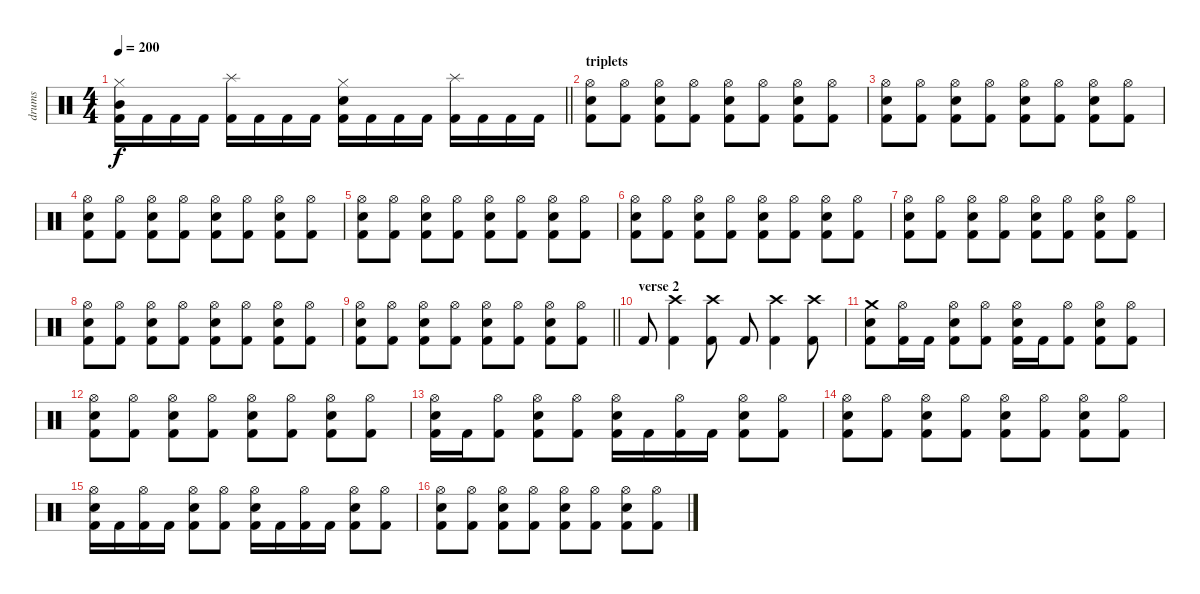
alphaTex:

\track ("drums" "drums") {instrument percussion}
\staff {score}
\articulation defaults
\ts (4 4)
\tempo 200
\clef neutral
\barLineRight lightlight
\ks c
("Hi-Hat (closed)" "Mid Tom (hit)" "Kick (hit) 2").16{dy f} "Kick (hit) 2".16 "Kick (hit) 2".16 "Kick (hit) 2".16 ("Splash (hit)" "Kick (hit) 2").16 "Kick (hit) 2".16 "Kick (hit) 2".16 "Kick (hit) 2".16 ("Hi-Hat (closed)" "Snare (hit) 2" "Kick (hit) 2").16 "Kick (hit) 2".16 "Kick (hit) 2".16 "Kick (hit) 2".16 ("Splash (hit)" "Kick (hit) 2").16 "Kick (hit) 2".16 "Kick (hit) 2".16 "Kick (hit) 2".16 |
\section ("" "triplets")
("Hi-Hat (open)" "Snare (hit) 2" "Kick (hit) 2").8 ("Hi-Hat (open)" "Kick (hit) 2").8 ("Hi-Hat (open)" "Snare (hit) 2" "Kick (hit) 2").8 ("Hi-Hat (open)" "Kick (hit) 2").8 ("Hi-Hat (open)" "Snare (hit) 2" "Kick (hit) 2").8 ("Hi-Hat (open)" "Kick (hit) 2").8 ("Hi-Hat (open)" "Snare (hit) 2" "Kick (hit) 2").8 ("Hi-Hat (open)" "Kick (hit) 2").8 |
("Hi-Hat (open)" "Snare (hit) 2" "Kick (hit) 2").8 ("Hi-Hat (open)" "Kick (hit) 2").8 ("Hi-Hat (open)" "Snare (hit) 2" "Kick (hit) 2").8 ("Hi-Hat (open)" "Kick (hit) 2").8 ("Hi-Hat (open)" "Snare (hit) 2" "Kick (hit) 2").8 ("Hi-Hat (open)" "Kick (hit) 2").8 ("Hi-Hat (open)" "Snare (hit) 2" "Kick (hit) 2").8 ("Hi-Hat (open)" "Kick (hit) 2").8 |
("Hi-Hat (open)" "Snare (hit) 2" "Kick (hit) 2").8 ("Hi-Hat (open)" "Kick (hit) 2").8 ("Hi-Hat (open)" "Snare (hit) 2" "Kick (hit) 2").8 ("Hi-Hat (open)" "Kick (hit) 2").8 ("Hi-Hat (open)" "Snare (hit) 2" "Kick (hit) 2").8 ("Hi-Hat (open)" "Kick (hit) 2").8 ("Hi-Hat (open)" "Snare (hit) 2" "Kick (hit) 2").8 ("Hi-Hat (open)" "Kick (hit) 2").8 |
("Hi-Hat (open)" "Snare (hit) 2" "Kick (hit) 2").8 ("Hi-Hat (open)" "Kick (hit) 2").8 ("Hi-Hat (open)" "Snare (hit) 2" "Kick (hit) 2").8 ("Hi-Hat (open)" "Kick (hit) 2").8 ("Hi-Hat (open)" "Snare (hit) 2" "Kick (hit) 2").8 ("Hi-Hat (open)" "Kick (hit) 2").8 ("Hi-Hat (open)" "Snare (hit) 2" "Kick (hit) 2").8 ("Hi-Hat (open)" "Kick (hit) 2").8 |
("Hi-Hat (open)" "Snare (hit) 2" "Kick (hit) 2").8 ("Hi-Hat (open)" "Kick (hit) 2").8 ("Hi-Hat (open)" "Snare (hit) 2" "Kick (hit) 2").8 ("Hi-Hat (open)" "Kick (hit) 2").8 ("Hi-Hat (open)" "Snare (hit) 2" "Kick (hit) 2").8 ("Hi-Hat (open)" "Kick (hit) 2").8 ("Hi-Hat (open)" "Snare (hit) 2" "Kick (hit) 2").8 ("Hi-Hat (open)" "Kick (hit) 2").8 |
("Hi-Hat (open)" "Snare (hit) 2" "Kick (hit) 2").8 ("Hi-Hat (open)" "Kick (hit) 2").8 ("Hi-Hat (open)" "Snare (hit) 2" "Kick (hit) 2").8 ("Hi-Hat (open)" "Kick (hit) 2").8 ("Hi-Hat (open)" "Snare (hit) 2" "Kick (hit) 2").8 ("Hi-Hat (open)" "Kick (hit) 2").8 ("Hi-Hat (open)" "Snare (hit) 2" "Kick (hit) 2").8 ("Hi-Hat (open)" "Kick (hit) 2").8 |
("Hi-Hat (open)" "Snare (hit) 2" "Kick (hit) 2").8 ("Hi-Hat (open)" "Kick (hit) 2").8 ("Hi-Hat (open)" "Snare (hit) 2" "Kick (hit) 2").8 ("Hi-Hat (open)" "Kick (hit) 2").8 ("Hi-Hat (open)" "Snare (hit) 2" "Kick (hit) 2").8 ("Hi-Hat (open)" "Kick (hit) 2").8 ("Hi-Hat (open)" "Snare (hit) 2" "Kick (hit) 2").8 ("Hi-Hat (open)" "Kick (hit) 2").8 |
\barLineRight lightlight
("Hi-Hat (open)" "Snare (hit) 2" "Kick (hit) 2").8 ("Hi-Hat (open)" "Kick (hit) 2").8 ("Hi-Hat (open)" "Snare (hit) 2" "Kick (hit) 2").8 ("Hi-Hat (open)" "Kick (hit) 2").8 ("Hi-Hat (open)" "Snare (hit) 2" "Kick (hit) 2").8 ("Hi-Hat (open)" "Kick (hit) 2").8 ("Hi-Hat (open)" "Snare (hit) 2" "Kick (hit) 2").8 ("Hi-Hat (open)" "Kick (hit) 2").8 |
\section ("" "verse 2")
"Kick (hit) 2".8 ("Crash high (hit)" "Kick (hit) 2").4 ("Crash high (hit)" "Kick (hit) 2").8 "Kick (hit) 2".8 ("Crash high (hit)" "Kick (hit) 2").4 ("Crash high (hit)" "Kick (hit) 2").8 |
("Crash medium (hit)" "Snare (hit) 2" "Kick (hit) 2").8 ("Hi-Hat (open)" "Kick (hit) 2").16 "Kick (hit) 2".16 ("Hi-Hat (open)" "Snare (hit) 2" "Kick (hit) 2").8 ("Hi-Hat (open)" "Kick (hit) 2").8 ("Hi-Hat (open)" "Snare (hit) 2" "Kick (hit) 2").16 "Kick (hit) 2".16 ("Hi-Hat (open)" "Kick (hit) 2").8 ("Hi-Hat (open)" "Snare (hit) 2" "Kick (hit) 2").8 ("Hi-Hat (open)" "Kick (hit) 2").8 |
("Hi-Hat (open)" "Snare (hit) 2" "Kick (hit) 2").8 ("Hi-Hat (open)" "Kick (hit) 2").8 ("Hi-Hat (open)" "Snare (hit) 2" "Kick (hit) 2").8 ("Hi-Hat (open)" "Kick (hit) 2").8 ("Hi-Hat (open)" "Snare (hit) 2" "Kick (hit) 2").8 ("Hi-Hat (open)" "Kick (hit) 2").8 ("Hi-Hat (open)" "Snare (hit) 2" "Kick (hit) 2").8 ("Hi-Hat (open)" "Kick (hit) 2").8 |
("Hi-Hat (open)" "Snare (hit) 2" "Kick (hit) 2").16 "Kick (hit) 2".16 ("Hi-Hat (open)" "Kick (hit) 2").8 ("Hi-Hat (open)" "Snare (hit) 2" "Kick (hit) 2").8 ("Hi-Hat (open)" "Kick (hit) 2").8 ("Hi-Hat (open)" "Snare (hit) 2" "Kick (hit) 2").16 "Kick (hit) 2".16 ("Hi-Hat (open)" "Kick (hit) 2").16 "Kick (hit) 2".16 ("Hi-Hat (open)" "Snare (hit) 2" "Kick (hit) 2").8 ("Hi-Hat (open)" "Kick (hit) 2").8 |
("Hi-Hat (open)" "Snare (hit) 2" "Kick (hit) 2").8 ("Hi-Hat (open)" "Kick (hit) 2").8 ("Hi-Hat (open)" "Snare (hit) 2" "Kick (hit) 2").8 ("Hi-Hat (open)" "Kick (hit) 2").8 ("Hi-Hat (open)" "Snare (hit) 2" "Kick (hit) 2").8 ("Hi-Hat (open)" "Kick (hit) 2").8 ("Hi-Hat (open)" "Snare (hit) 2" "Kick (hit) 2").8 ("Hi-Hat (open)" "Kick (hit) 2").8 |
("Hi-Hat (open)" "Snare (hit) 2" "Kick (hit) 2").16 "Kick (hit) 2".16 ("Hi-Hat (open)" "Kick (hit) 2").16 "Kick (hit) 2".16 ("Hi-Hat (open)" "Snare (hit) 2" "Kick (hit) 2").8 ("Hi-Hat (open)" "Kick (hit) 2").8 ("Hi-Hat (open)" "Snare (hit) 2" "Kick (hit) 2").16 "Kick (hit) 2".16 ("Hi-Hat (open)" "Kick (hit) 2").16 "Kick (hit) 2".16 ("Hi-Hat (open)" "Snare (hit) 2" "Kick (hit) 2").8 ("Hi-Hat (open)" "Kick (hit) 2").8 |
("Hi-Hat (open)" "Snare (hit) 2" "Kick (hit) 2").8 ("Hi-Hat (open)" "Kick (hit) 2").8 ("Hi-Hat (open)" "Snare (hit) 2" "Kick (hit) 2").8 ("Hi-Hat (open)" "Kick (hit) 2").8 ("Hi-Hat (open)" "Snare (hit) 2" "Kick (hit) 2").8 ("Hi-Hat (open)" "Kick (hit) 2").8 ("Hi-Hat (open)" "Snare (hit) 2" "Kick (hit) 2").8 ("Hi-Hat (open)" "Kick (hit) 2").8
